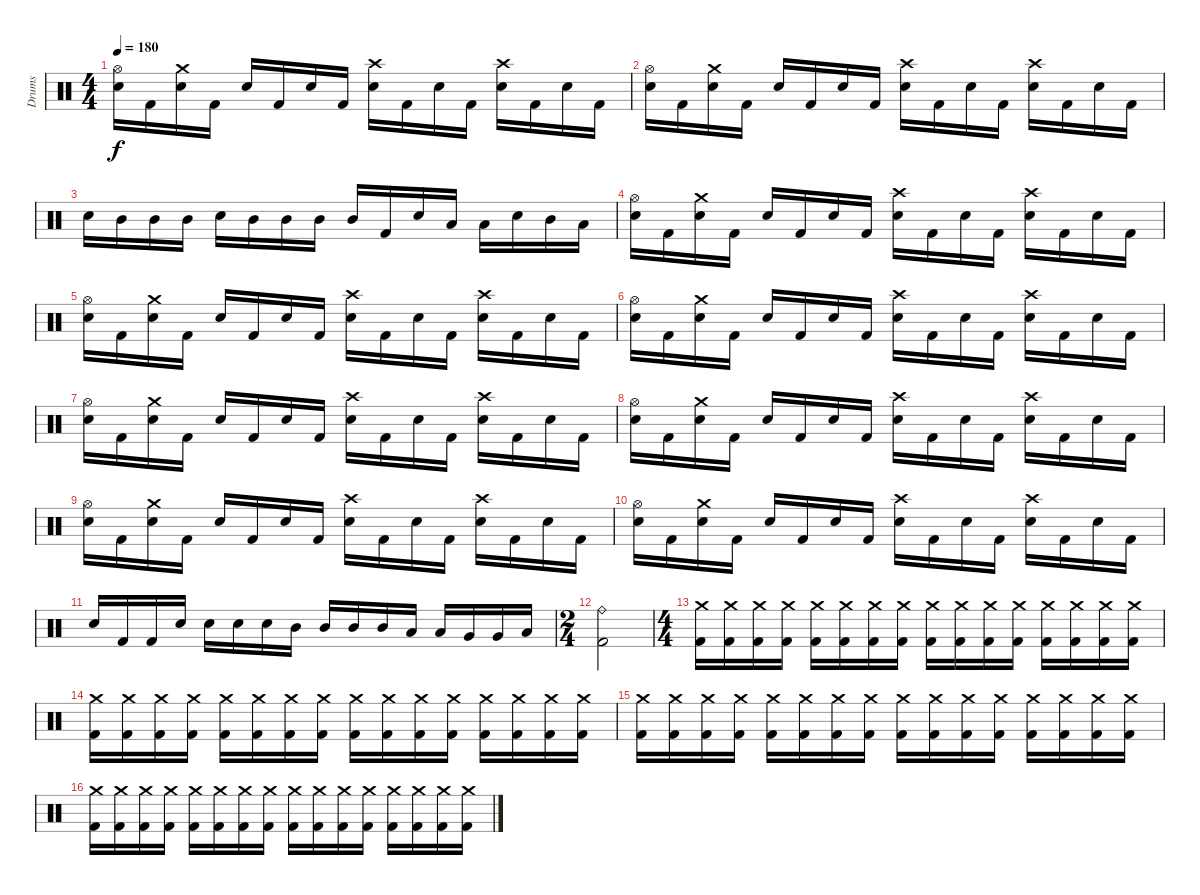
\track ("Drums" "Drums") {instrument percussion}
\staff {score}
\articulation defaults
\ts (4 4)
\tempo 180
\clef neutral
\ks c
("Hi-Hat (open)" "Electric Snare (hit)").16{dy f} "Kick (hit) 2".16 ("Crash medium (hit)" "Electric Snare (hit)").16 "Kick (hit) 2".16 "Electric Snare (hit)".16 "Kick (hit) 2".16 "Electric Snare (hit)".16 "Kick (hit) 2".16 ("Crash high (hit)" "Electric Snare (hit)").16 "Kick (hit) 2".16 "Electric Snare (hit)".16 "Kick (hit) 2".16 ("Crash high (hit)" "Electric Snare (hit)").16 "Kick (hit) 2".16 "Electric Snare (hit)".16 "Kick (hit) 2".16 |
("Hi-Hat (open)" "Electric Snare (hit)").16 "Kick (hit) 2".16 ("Crash medium (hit)" "Electric Snare (hit)").16 "Kick (hit) 2".16 "Electric Snare (hit)".16 "Kick (hit) 2".16 "Electric Snare (hit)".16 "Kick (hit) 2".16 ("Crash high (hit)" "Electric Snare (hit)").16 "Kick (hit) 2".16 "Electric Snare (hit)".16 "Kick (hit) 2".16 ("Crash high (hit)" "Electric Snare (hit)").16 "Kick (hit) 2".16 "Electric Snare (hit)".16 "Kick (hit) 2".16 |
"Electric Snare (hit)".16 "Mid Tom (hit)".16 "Mid Tom (hit)".16 "Mid Tom (hit)".16 "Electric Snare (hit)".16 "Mid Tom (hit)".16 "Mid Tom (hit)".16 "Mid Tom (hit)".16 "Mid Tom (hit)".16 "Kick (hit) 2".16 "Electric Snare (hit)".16 "Low Tom (hit)".16 "Low Tom (hit)".16 "Electric Snare (hit)".16 "Mid Tom (hit)".16 "Low Tom (hit)".16 |
("Hi-Hat (open)" "Electric Snare (hit)").16 "Kick (hit) 2".16 ("Crash medium (hit)" "Electric Snare (hit)").16 "Kick (hit) 2".16 "Electric Snare (hit)".16 "Kick (hit) 2".16 "Electric Snare (hit)".16 "Kick (hit) 2".16 ("Crash high (hit)" "Electric Snare (hit)").16 "Kick (hit) 2".16 "Electric Snare (hit)".16 "Kick (hit) 2".16 ("Crash high (hit)" "Electric Snare (hit)").16 "Kick (hit) 2".16 "Electric Snare (hit)".16 "Kick (hit) 2".16 |
("Hi-Hat (open)" "Electric Snare (hit)").16 "Kick (hit) 2".16 ("Crash medium (hit)" "Electric Snare (hit)").16 "Kick (hit) 2".16 "Electric Snare (hit)".16 "Kick (hit) 2".16 "Electric Snare (hit)".16 "Kick (hit) 2".16 ("Crash high (hit)" "Electric Snare (hit)").16 "Kick (hit) 2".16 "Electric Snare (hit)".16 "Kick (hit) 2".16 ("Crash high (hit)" "Electric Snare (hit)").16 "Kick (hit) 2".16 "Electric Snare (hit)".16 "Kick (hit) 2".16 |
("Hi-Hat (open)" "Electric Snare (hit)").16 "Kick (hit) 2".16 ("Crash medium (hit)" "Electric Snare (hit)").16 "Kick (hit) 2".16 "Electric Snare (hit)".16 "Kick (hit) 2".16 "Electric Snare (hit)".16 "Kick (hit) 2".16 ("Crash high (hit)" "Electric Snare (hit)").16 "Kick (hit) 2".16 "Electric Snare (hit)".16 "Kick (hit) 2".16 ("Crash high (hit)" "Electric Snare (hit)").16 "Kick (hit) 2".16 "Electric Snare (hit)".16 "Kick (hit) 2".16 |
("Hi-Hat (open)" "Electric Snare (hit)").16 "Kick (hit) 2".16 ("Crash medium (hit)" "Electric Snare (hit)").16 "Kick (hit) 2".16 "Electric Snare (hit)".16 "Kick (hit) 2".16 "Electric Snare (hit)".16 "Kick (hit) 2".16 ("Crash high (hit)" "Electric Snare (hit)").16 "Kick (hit) 2".16 "Electric Snare (hit)".16 "Kick (hit) 2".16 ("Crash high (hit)" "Electric Snare (hit)").16 "Kick (hit) 2".16 "Electric Snare (hit)".16 "Kick (hit) 2".16 |
("Hi-Hat (open)" "Electric Snare (hit)").16 "Kick (hit) 2".16 ("Crash medium (hit)" "Electric Snare (hit)").16 "Kick (hit) 2".16 "Electric Snare (hit)".16 "Kick (hit) 2".16 "Electric Snare (hit)".16 "Kick (hit) 2".16 ("Crash high (hit)" "Electric Snare (hit)").16 "Kick (hit) 2".16 "Electric Snare (hit)".16 "Kick (hit) 2".16 ("Crash high (hit)" "Electric Snare (hit)").16 "Kick (hit) 2".16 "Electric Snare (hit)".16 "Kick (hit) 2".16 |
("Hi-Hat (open)" "Electric Snare (hit)").16 "Kick (hit) 2".16 ("Crash medium (hit)" "Electric Snare (hit)").16 "Kick (hit) 2".16 "Electric Snare (hit)".16 "Kick (hit) 2".16 "Electric Snare (hit)".16 "Kick (hit) 2".16 ("Crash high (hit)" "Electric Snare (hit)").16 "Kick (hit) 2".16 "Electric Snare (hit)".16 "Kick (hit) 2".16 ("Crash high (hit)" "Electric Snare (hit)").16 "Kick (hit) 2".16 "Electric Snare (hit)".16 "Kick (hit) 2".16 |
("Hi-Hat (open)" "Electric Snare (hit)").16 "Kick (hit) 2".16 ("Crash medium (hit)" "Electric Snare (hit)").16 "Kick (hit) 2".16 "Electric Snare (hit)".16 "Kick (hit) 2".16 "Electric Snare (hit)".16 "Kick (hit) 2".16 ("Crash high (hit)" "Electric Snare (hit)").16 "Kick (hit) 2".16 "Electric Snare (hit)".16 "Kick (hit) 2".16 ("Crash high (hit)" "Electric Snare (hit)").16 "Kick (hit) 2".16 "Electric Snare (hit)".16 "Kick (hit) 2".16 |
"Electric Snare (hit)".16 "Kick (hit) 2".16 "Kick (hit) 2".16 "Electric Snare (hit)".16 "Electric Snare (hit)".16 "Electric Snare (hit)".16 "Electric Snare (hit)".16 "Mid Tom (hit)".16 "Mid Tom (hit)".16 "Mid Tom (hit)".16 "Mid Tom (hit)".16 "Low Tom (hit)".16 "Low Tom (hit)".16 "Very Low Tom (hit)".16 "Very Low Tom (hit)".16 "Low Floor Tom (hit)".16 |
\ts (2 4)
("Ride (bell)" "Kick (hit) 2").2 |
\ts (4 4)
("Crash medium (hit)" "Kick (hit) 2").16 ("Crash medium (hit)" "Kick (hit) 2").16 ("Crash medium (hit)" "Kick (hit) 2").16 ("Crash medium (hit)" "Kick (hit) 2").16 ("Crash medium (hit)" "Kick (hit) 2").16 ("Crash medium (hit)" "Kick (hit) 2").16 ("Crash medium (hit)" "Kick (hit) 2").16 ("Crash medium (hit)" "Kick (hit) 2").16 ("Crash medium (hit)" "Kick (hit) 2").16 ("Crash medium (hit)" "Kick (hit) 2").16 ("Crash medium (hit)" "Kick (hit) 2").16 ("Crash medium (hit)" "Kick (hit) 2").16 ("Crash medium (hit)" "Kick (hit) 2").16 ("Crash medium (hit)" "Kick (hit) 2").16 ("Crash medium (hit)" "Kick (hit) 2").16 ("Crash medium (hit)" "Kick (hit) 2").16 |
("Crash medium (hit)" "Kick (hit) 2").16 ("Crash medium (hit)" "Kick (hit) 2").16 ("Crash medium (hit)" "Kick (hit) 2").16 ("Crash medium (hit)" "Kick (hit) 2").16 ("Crash medium (hit)" "Kick (hit) 2").16 ("Crash medium (hit)" "Kick (hit) 2").16 ("Crash medium (hit)" "Kick (hit) 2").16 ("Crash medium (hit)" "Kick (hit) 2").16 ("Crash medium (hit)" "Kick (hit) 2").16 ("Crash medium (hit)" "Kick (hit) 2").16 ("Crash medium (hit)" "Kick (hit) 2").16 ("Crash medium (hit)" "Kick (hit) 2").16 ("Crash medium (hit)" "Kick (hit) 2").16 ("Crash medium (hit)" "Kick (hit) 2").16 ("Crash medium (hit)" "Kick (hit) 2").16 ("Crash medium (hit)" "Kick (hit) 2").16 |
("Crash medium (hit)" "Kick (hit) 2").16 ("Crash medium (hit)" "Kick (hit) 2").16 ("Crash medium (hit)" "Kick (hit) 2").16 ("Crash medium (hit)" "Kick (hit) 2").16 ("Crash medium (hit)" "Kick (hit) 2").16 ("Crash medium (hit)" "Kick (hit) 2").16 ("Crash medium (hit)" "Kick (hit) 2").16 ("Crash medium (hit)" "Kick (hit) 2").16 ("Crash medium (hit)" "Kick (hit) 2").16 ("Crash medium (hit)" "Kick (hit) 2").16 ("Crash medium (hit)" "Kick (hit) 2").16 ("Crash medium (hit)" "Kick (hit) 2").16 ("Crash medium (hit)" "Kick (hit) 2").16 ("Crash medium (hit)" "Kick (hit) 2").16 ("Crash medium (hit)" "Kick (hit) 2").16 ("Crash medium (hit)" "Kick (hit) 2").16 |
("Crash medium (hit)" "Kick (hit) 2").16 ("Crash medium (hit)" "Kick (hit) 2").16 ("Crash medium (hit)" "Kick (hit) 2").16 ("Crash medium (hit)" "Kick (hit) 2").16 ("Crash medium (hit)" "Kick (hit) 2").16 ("Crash medium (hit)" "Kick (hit) 2").16 ("Crash medium (hit)" "Kick (hit) 2").16 ("Crash medium (hit)" "Kick (hit) 2").16 ("Crash medium (hit)" "Kick (hit) 2").16 ("Crash medium (hit)" "Kick (hit) 2").16 ("Crash medium (hit)" "Kick (hit) 2").16 ("Crash medium (hit)" "Kick (hit) 2").16 ("Crash medium (hit)" "Kick (hit) 2").16 ("Crash medium (hit)" "Kick (hit) 2").16 ("Crash medium (hit)" "Kick (hit) 2").16 ("Crash medium (hit)" "Kick (hit) 2").16
